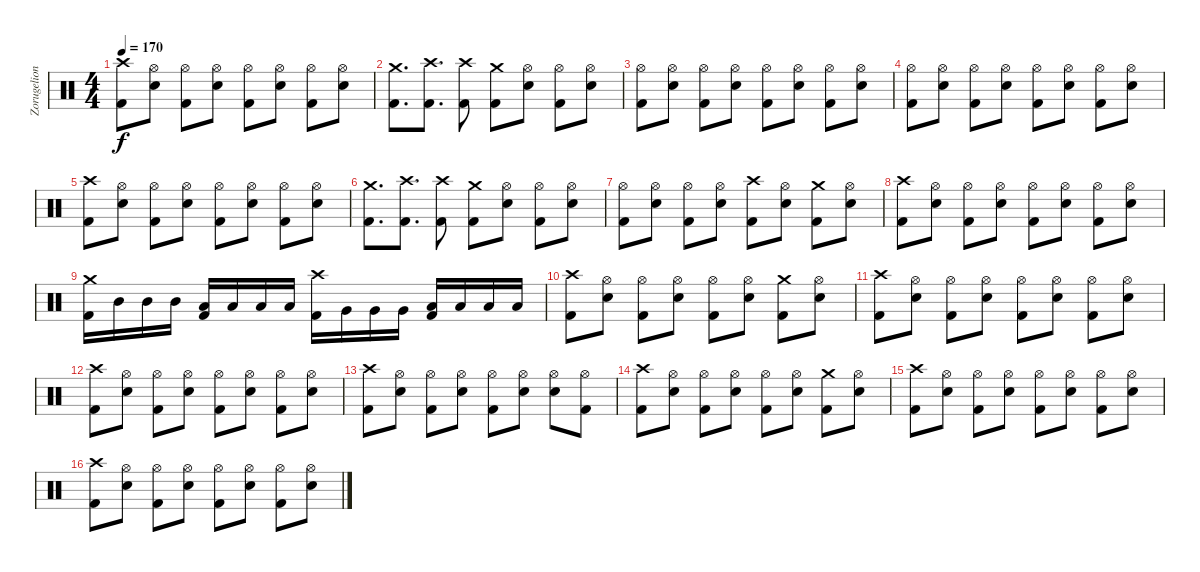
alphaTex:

\track ("Zorugelion" "Zorugelion") {instrument percussion}
\staff {score}
\articulation defaults
\ts (4 4)
\tempo 170
\clef neutral
\ks c
("Crash high (hit)" "Kick (hit) 2").8{dy f} ("Hi-Hat (open)" "Electric Snare (hit)").8 ("Hi-Hat (open)" "Kick (hit) 2").8 ("Hi-Hat (open)" "Electric Snare (hit)").8 ("Hi-Hat (open)" "Kick (hit) 2").8 ("Hi-Hat (open)" "Electric Snare (hit)").8 ("Hi-Hat (open)" "Kick (hit) 2").8 ("Hi-Hat (open)" "Electric Snare (hit)").8 |
("Crash medium (hit)" "Kick (hit) 2").8{d} ("Crash high (hit)" "Kick (hit) 2").8{d} ("Crash high (hit)" "Kick (hit) 2").8 ("Crash medium (hit)" "Kick (hit) 2").8 ("Hi-Hat (open)" "Electric Snare (hit)").8 ("Hi-Hat (open)" "Kick (hit) 2").8 ("Hi-Hat (open)" "Electric Snare (hit)").8 |
("Hi-Hat (open)" "Kick (hit) 2").8 ("Hi-Hat (open)" "Electric Snare (hit)").8 ("Hi-Hat (open)" "Kick (hit) 2").8 ("Hi-Hat (open)" "Electric Snare (hit)").8 ("Hi-Hat (open)" "Kick (hit) 2").8 ("Hi-Hat (open)" "Electric Snare (hit)").8 ("Hi-Hat (open)" "Kick (hit) 2").8 ("Hi-Hat (open)" "Electric Snare (hit)").8 |
("Hi-Hat (open)" "Kick (hit) 2").8 ("Hi-Hat (open)" "Electric Snare (hit)").8 ("Hi-Hat (open)" "Kick (hit) 2").8 ("Hi-Hat (open)" "Electric Snare (hit)").8 ("Hi-Hat (open)" "Kick (hit) 2").8 ("Hi-Hat (open)" "Electric Snare (hit)").8 ("Hi-Hat (open)" "Kick (hit) 2").8 ("Hi-Hat (open)" "Electric Snare (hit)").8 |
("Crash high (hit)" "Kick (hit) 2").8 ("Hi-Hat (open)" "Electric Snare (hit)").8 ("Hi-Hat (open)" "Kick (hit) 2").8 ("Hi-Hat (open)" "Electric Snare (hit)").8 ("Hi-Hat (open)" "Kick (hit) 2").8 ("Hi-Hat (open)" "Electric Snare (hit)").8 ("Hi-Hat (open)" "Kick (hit) 2").8 ("Hi-Hat (open)" "Electric Snare (hit)").8 |
("Crash medium (hit)" "Kick (hit) 2").8{d} ("Crash high (hit)" "Kick (hit) 2").8{d} ("Crash high (hit)" "Kick (hit) 2").8 ("Crash medium (hit)" "Kick (hit) 2").8 ("Hi-Hat (open)" "Electric Snare (hit)").8 ("Hi-Hat (open)" "Kick (hit) 2").8 ("Hi-Hat (open)" "Electric Snare (hit)").8 |
("Hi-Hat (open)" "Kick (hit) 2").8 ("Hi-Hat (open)" "Electric Snare (hit)").8 ("Hi-Hat (open)" "Kick (hit) 2").8 ("Hi-Hat (open)" "Electric Snare (hit)").8 ("Crash high (hit)" "Kick (hit) 2").8 ("Hi-Hat (open)" "Electric Snare (hit)").8 ("Crash medium (hit)" "Kick (hit) 2").8 ("Hi-Hat (open)" "Electric Snare (hit)").8 |
("Crash high (hit)" "Kick (hit) 2").8 ("Hi-Hat (open)" "Electric Snare (hit)").8 ("Hi-Hat (open)" "Kick (hit) 2").8 ("Hi-Hat (open)" "Electric Snare (hit)").8 ("Hi-Hat (open)" "Kick (hit) 2").8 ("Hi-Hat (open)" "Electric Snare (hit)").8 ("Hi-Hat (open)" "Kick (hit) 2").8 ("Hi-Hat (open)" "Electric Snare (hit)").8 |
("Crash medium (hit)" "Kick (hit) 2").16 "Mid Tom (hit)".16 "Mid Tom (hit)".16 "Mid Tom (hit)".16 ("Low Tom (hit)" "Kick (hit) 2").16 "Low Tom (hit)".16 "Low Tom (hit)".16 "Low Tom (hit)".16 ("Crash high (hit)" "Kick (hit) 2").16 "Very Low Tom (hit)".16 "Very Low Tom (hit)".16 "Very Low Tom (hit)".16 ("Low Floor Tom (hit)" "Kick (hit) 2").16 "Low Floor Tom (hit)".16 "Low Floor Tom (hit)".16 "Low Floor Tom (hit)".16 |
("Crash high (hit)" "Kick (hit) 2").8 ("Hi-Hat (open)" "Electric Snare (hit)").8 ("Hi-Hat (open)" "Kick (hit) 2").8 ("Hi-Hat (open)" "Electric Snare (hit)").8 ("Hi-Hat (open)" "Kick (hit) 2").8 ("Hi-Hat (open)" "Electric Snare (hit)").8 ("Crash medium (hit)" "Kick (hit) 2").8 ("Hi-Hat (open)" "Electric Snare (hit)").8 |
("Crash high (hit)" "Kick (hit) 2").8 ("Hi-Hat (open)" "Electric Snare (hit)").8 ("Hi-Hat (open)" "Kick (hit) 2").8 ("Hi-Hat (open)" "Electric Snare (hit)").8 ("Hi-Hat (open)" "Kick (hit) 2").8 ("Hi-Hat (open)" "Electric Snare (hit)").8 ("Hi-Hat (open)" "Kick (hit) 2").8 ("Hi-Hat (open)" "Electric Snare (hit)").8 |
("Crash high (hit)" "Kick (hit) 2").8 ("Hi-Hat (open)" "Electric Snare (hit)").8 ("Hi-Hat (open)" "Kick (hit) 2").8 ("Hi-Hat (open)" "Electric Snare (hit)").8 ("Hi-Hat (open)" "Kick (hit) 2").8 ("Hi-Hat (open)" "Electric Snare (hit)").8 ("Hi-Hat (open)" "Kick (hit) 2").8 ("Hi-Hat (open)" "Electric Snare (hit)").8 |
("Crash high (hit)" "Kick (hit) 2").8 ("Hi-Hat (open)" "Electric Snare (hit)").8 ("Hi-Hat (open)" "Kick (hit) 2").8 ("Hi-Hat (open)" "Electric Snare (hit)").8 ("Hi-Hat (open)" "Kick (hit) 2").8 ("Hi-Hat (open)" "Electric Snare (hit)").8 ("Hi-Hat (open)" "Electric Snare (hit)").8 ("Hi-Hat (open)" "Kick (hit) 2").8 |
("Crash high (hit)" "Kick (hit) 2").8 ("Hi-Hat (open)" "Electric Snare (hit)").8 ("Hi-Hat (open)" "Kick (hit) 2").8 ("Hi-Hat (open)" "Electric Snare (hit)").8 ("Hi-Hat (open)" "Kick (hit) 2").8 ("Hi-Hat (open)" "Electric Snare (hit)").8 ("Crash medium (hit)" "Kick (hit) 2").8 ("Hi-Hat (open)" "Electric Snare (hit)").8 |
("Crash high (hit)" "Kick (hit) 2").8 ("Hi-Hat (open)" "Electric Snare (hit)").8 ("Hi-Hat (open)" "Kick (hit) 2").8 ("Hi-Hat (open)" "Electric Snare (hit)").8 ("Hi-Hat (open)" "Kick (hit) 2").8 ("Hi-Hat (open)" "Electric Snare (hit)").8 ("Hi-Hat (open)" "Kick (hit) 2").8 ("Hi-Hat (open)" "Electric Snare (hit)").8 |
("Crash high (hit)" "Kick (hit) 2").8 ("Hi-Hat (open)" "Electric Snare (hit)").8 ("Hi-Hat (open)" "Kick (hit) 2").8 ("Hi-Hat (open)" "Electric Snare (hit)").8 ("Hi-Hat (open)" "Kick (hit) 2").8 ("Hi-Hat (open)" "Electric Snare (hit)").8 ("Hi-Hat (open)" "Kick (hit) 2").8 ("Hi-Hat (open)" "Electric Snare (hit)").8
